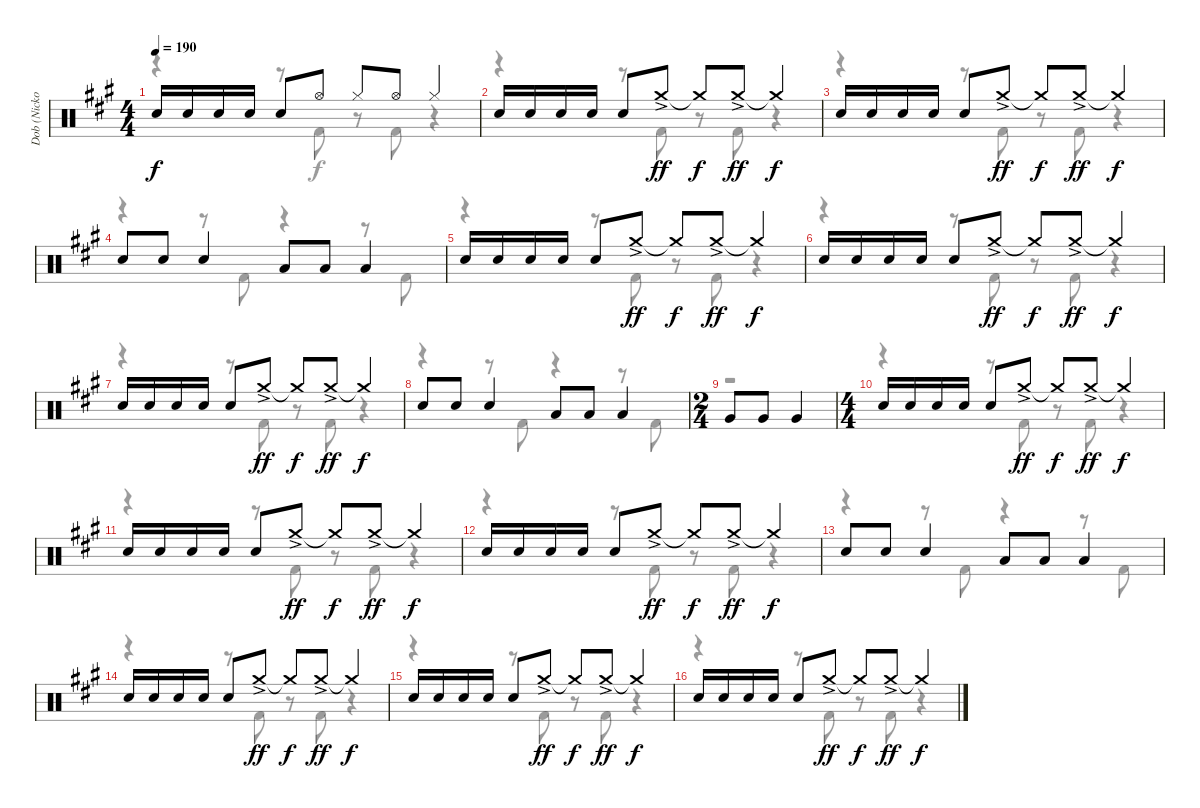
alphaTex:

\track ("Dob (Nicko McBrain)" "Dob (Nicko") {instrument percussion}
\staff {score}
\articulation defaults
\voice
\ts (4 4)
\tempo 190
\clef neutral
\ks a "Electric Snare (hit)".16{dy f} "Electric Snare (hit)".16 "Electric Snare (hit)".16 "Electric Snare (hit)".16 "Electric Snare (hit)".8 "Hi-Hat (open)".8 "Hi-Hat (closed)".8 "Hi-Hat (open)".8 "Hi-Hat (closed)".4
|
"Electric Snare (hit)".16 "Electric Snare (hit)".16 "Electric Snare (hit)".16 "Electric Snare (hit)".16 "Electric Snare (hit)".8 "Crash medium (hit)"{ac}.8{dy ff} "Crash medium (hit)"{t}.8{dy f} "Crash medium (hit)"{ac}.8{dy ff} "Crash medium (hit)"{t}.4{dy f} |
"Electric Snare (hit)".16 "Electric Snare (hit)".16 "Electric Snare (hit)".16 "Electric Snare (hit)".16 "Electric Snare (hit)".8 "Crash medium (hit)"{ac}.8{dy ff} "Crash medium (hit)"{t}.8{dy f} "Crash medium (hit)"{ac}.8{dy ff} "Crash medium (hit)"{t}.4{dy f} |
"Electric Snare (hit)".8 "Electric Snare (hit)".8 "Electric Snare (hit)".4 "Low Tom (hit)".8 "Low Tom (hit)".8 "Low Tom (hit)".4 |
"Electric Snare (hit)".16 "Electric Snare (hit)".16 "Electric Snare (hit)".16 "Electric Snare (hit)".16 "Electric Snare (hit)".8 "Crash medium (hit)"{ac}.8{dy ff} "Crash medium (hit)"{t}.8{dy f} "Crash medium (hit)"{ac}.8{dy ff} "Crash medium (hit)"{t}.4{dy f} |
"Electric Snare (hit)".16 "Electric Snare (hit)".16 "Electric Snare (hit)".16 "Electric Snare (hit)".16 "Electric Snare (hit)".8 "Crash medium (hit)"{ac}.8{dy ff} "Crash medium (hit)"{t}.8{dy f} "Crash medium (hit)"{ac}.8{dy ff} "Crash medium (hit)"{t}.4{dy f} |
"Electric Snare (hit)".16 "Electric Snare (hit)".16 "Electric Snare (hit)".16 "Electric Snare (hit)".16 "Electric Snare (hit)".8 "Crash medium (hit)"{ac}.8{dy ff} "Crash medium (hit)"{t}.8{dy f} "Crash medium (hit)"{ac}.8{dy ff} "Crash medium (hit)"{t}.4{dy f} |
"Electric Snare (hit)".8 "Electric Snare (hit)".8 "Electric Snare (hit)".4 "Low Tom (hit)".8 "Low Tom (hit)".8 "Low Tom (hit)".4 |
\ts (2 4)
"Very Low Tom (hit)".8 "Very Low Tom (hit)".8 "Very Low Tom (hit)".4 |
\ts (4 4)
"Electric Snare (hit)".16 "Electric Snare (hit)".16 "Electric Snare (hit)".16 "Electric Snare (hit)".16 "Electric Snare (hit)".8 "Crash medium (hit)"{ac}.8{dy ff} "Crash medium (hit)"{t}.8{dy f} "Crash medium (hit)"{ac}.8{dy ff} "Crash medium (hit)"{t}.4{dy f} |
"Electric Snare (hit)".16 "Electric Snare (hit)".16 "Electric Snare (hit)".16 "Electric Snare (hit)".16 "Electric Snare (hit)".8 "Crash medium (hit)"{ac}.8{dy ff} "Crash medium (hit)"{t}.8{dy f} "Crash medium (hit)"{ac}.8{dy ff} "Crash medium (hit)"{t}.4{dy f} |
"Electric Snare (hit)".16 "Electric Snare (hit)".16 "Electric Snare (hit)".16 "Electric Snare (hit)".16 "Electric Snare (hit)".8 "Crash medium (hit)"{ac}.8{dy ff} "Crash medium (hit)"{t}.8{dy f} "Crash medium (hit)"{ac}.8{dy ff} "Crash medium (hit)"{t}.4{dy f} |
"Electric Snare (hit)".8 "Electric Snare (hit)".8 "Electric Snare (hit)".4 "Low Tom (hit)".8 "Low Tom (hit)".8 "Low Tom (hit)".4 |
"Electric Snare (hit)".16 "Electric Snare (hit)".16 "Electric Snare (hit)".16 "Electric Snare (hit)".16 "Electric Snare (hit)".8 "Crash medium (hit)"{ac}.8{dy ff} "Crash medium (hit)"{t}.8{dy f} "Crash medium (hit)"{ac}.8{dy ff} "Crash medium (hit)"{t}.4{dy f} |
"Electric Snare (hit)".16 "Electric Snare (hit)".16 "Electric Snare (hit)".16 "Electric Snare (hit)".16 "Electric Snare (hit)".8 "Crash medium (hit)"{ac}.8{dy ff} "Crash medium (hit)"{t}.8{dy f} "Crash medium (hit)"{ac}.8{dy ff} "Crash medium (hit)"{t}.4{dy f} |
"Electric Snare (hit)".16 "Electric Snare (hit)".16 "Electric Snare (hit)".16 "Electric Snare (hit)".16 "Electric Snare (hit)".8 "Crash medium (hit)"{ac}.8{dy ff} "Crash medium (hit)"{t}.8{dy f} "Crash medium (hit)"{ac}.8{dy ff} "Crash medium (hit)"{t}.4{dy f}
\voice
\clef neutral
\ottava regular
\simile none
\ks a
r.4{dy f} r.8 "Kick (hit) 2".8 r.8 "Kick (hit) 2".8 r.4 |
r.4 r.8 "Kick (hit) 2".8 r.8 "Kick (hit) 2".8 r.4 |
r.4 r.8 "Kick (hit) 2".8 r.8 "Kick (hit) 2".8 r.4 |
r.4 r.8 "Kick (hit) 2".8 r.4 r.8 "Kick (hit) 2".8 |
r.4 r.8 "Kick (hit) 2".8 r.8 "Kick (hit) 2".8 r.4 |
r.4 r.8 "Kick (hit) 2".8 r.8 "Kick (hit) 2".8 r.4 |
r.4 r.8 "Kick (hit) 2".8 r.8 "Kick (hit) 2".8 r.4 |
r.4 r.8 "Kick (hit) 2".8 r.4 r.8 "Kick (hit) 2".8 |
r.2 |
r.4 r.8 "Kick (hit) 2".8 r.8 "Kick (hit) 2".8 r.4 |
r.4 r.8 "Kick (hit) 2".8 r.8 "Kick (hit) 2".8 r.4 |
r.4 r.8 "Kick (hit) 2".8 r.8 "Kick (hit) 2".8 r.4 |
r.4 r.8 "Kick (hit) 2".8 r.4 r.8 "Kick (hit) 2".8 |
r.4 r.8 "Kick (hit) 2".8 r.8 "Kick (hit) 2".8 r.4 |
r.4 r.8 "Kick (hit) 2".8 r.8 "Kick (hit) 2".8 r.4 |
r.4 r.8 "Kick (hit) 2".8 r.8 "Kick (hit) 2".8 r.4
